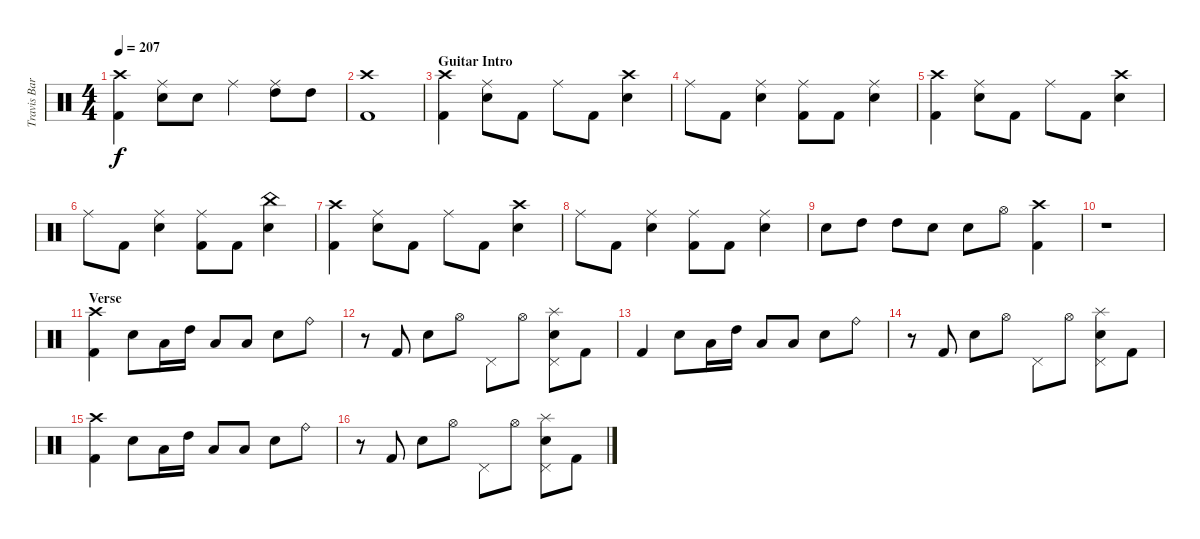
\track ("Travis Barker" "Travis Bar") {instrument percussion}
\staff {score}
\articulation defaults
\ts (4 4)
\tempo 207
\clef neutral
\ks c
("Crash high (hit)" "Kick (hit) 2").4{dy f} ("Ride (middle)" "Electric Snare (hit)").8 "Electric Snare (hit)".8 "Ride (middle)".4 ("Ride (middle)" "High Tom (hit)").8 "High Tom (hit)".8 |
("Crash high (hit)" "Kick (hit) 2").1 |
\section ("" "Guitar Intro")
("Crash high (hit)" "Kick (hit) 2").4 ("Ride (middle)" "Electric Snare (hit)").8 "Kick (hit) 2".8 "Ride (middle)".8 "Kick (hit) 2".8 ("Crash high (hit)" "Electric Snare (hit)").4 |
"Ride (middle)".8 "Kick (hit) 2".8 ("Ride (middle)" "Electric Snare (hit)").4 ("Ride (middle)" "Kick (hit) 2").8 "Kick (hit) 2".8 ("Ride (middle)" "Electric Snare (hit)").4 |
("Crash high (hit)" "Kick (hit) 2").4 ("Ride (middle)" "Electric Snare (hit)").8 "Kick (hit) 2".8 "Ride (middle)".8 "Kick (hit) 2".8 ("Crash high (hit)" "Electric Snare (hit)").4 |
"Ride (middle)".8 "Kick (hit) 2".8 ("Ride (middle)" "Electric Snare (hit)").4 ("Ride (middle)" "Kick (hit) 2").8 "Kick (hit) 2".8 ("China (hit)" "Electric Snare (hit)").4 |
("Crash high (hit)" "Kick (hit) 2").4 ("Ride (middle)" "Electric Snare (hit)").8 "Kick (hit) 2".8 "Ride (middle)".8 "Kick (hit) 2".8 ("Crash high (hit)" "Electric Snare (hit)").4 |
"Ride (middle)".8 "Kick (hit) 2".8 ("Ride (middle)" "Electric Snare (hit)").4 ("Ride (middle)" "Kick (hit) 2").8 "Kick (hit) 2".8 ("Ride (middle)" "Electric Snare (hit)").4 |
"Electric Snare (hit)".8 "High Tom (hit)".8 "High Tom (hit)".8 "Electric Snare (hit)".8 "Electric Snare (hit)".8 "Hi-Hat (open)".8 ("Crash high (hit)" "Kick (hit) 2").4 |
r.1 |
\section ("" "Verse")
("Crash high (hit)" "Kick (hit) 2").4 "Electric Snare (hit)".8 "Low Tom (hit)".16 "High Tom (hit)".16 "Low Tom (hit)".8 "Low Tom (hit)".8 "Electric Snare (hit)".8 "Ride (bell)".8 |
r.8 "Kick (hit) 2".8 "Electric Snare (hit)".8 "Hi-Hat (open)".8 "Pedal Hi-Hat (hit)".8 "Hi-Hat (open)".8 ("Pedal Hi-Hat (hit)" "Splash (hit)" "Electric Snare (hit)").8 "Kick (hit) 2".8 |
"Kick (hit) 2".4 "Electric Snare (hit)".8 "Low Tom (hit)".16 "High Tom (hit)".16 "Low Tom (hit)".8 "Low Tom (hit)".8 "Electric Snare (hit)".8 "Ride (bell)".8 |
r.8 "Kick (hit) 2".8 "Electric Snare (hit)".8 "Hi-Hat (open)".8 "Pedal Hi-Hat (hit)".8 "Hi-Hat (open)".8 ("Pedal Hi-Hat (hit)" "Splash (hit)" "Electric Snare (hit)").8 "Kick (hit) 2".8 |
("Crash high (hit)" "Kick (hit) 2").4 "Electric Snare (hit)".8 "Low Tom (hit)".16 "High Tom (hit)".16 "Low Tom (hit)".8 "Low Tom (hit)".8 "Electric Snare (hit)".8 "Ride (bell)".8 |
r.8 "Kick (hit) 2".8 "Electric Snare (hit)".8 "Hi-Hat (open)".8 "Pedal Hi-Hat (hit)".8 "Hi-Hat (open)".8 ("Pedal Hi-Hat (hit)" "Splash (hit)" "Electric Snare (hit)").8 "Kick (hit) 2".8
